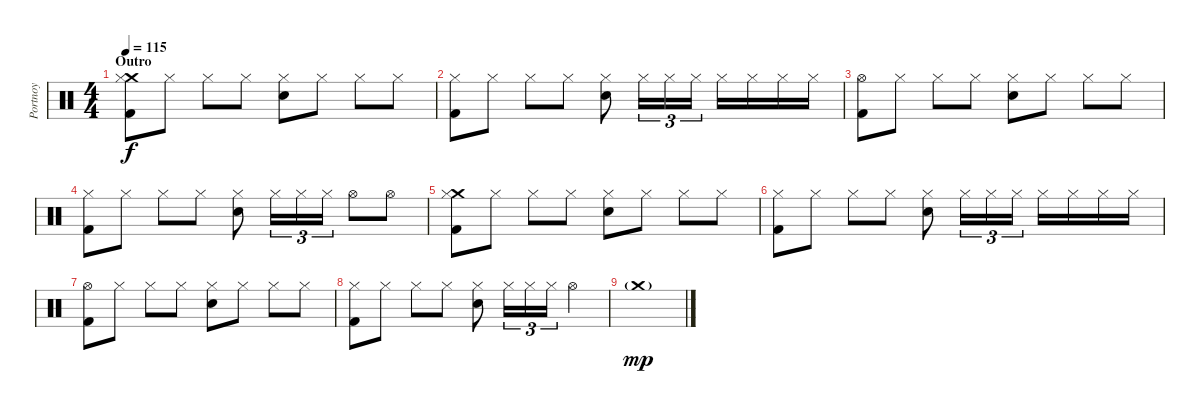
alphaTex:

\track ("Portnoy" "Portnoy") {instrument percussion}
\staff {score}
\articulation defaults
\ts (4 4)
\section ("" "Outro")
\tempo 115
\clef neutral
\ks c
("Crash medium (hit)" "Hi-Hat (closed)" "Kick (hit) 2").8{dy f} "Hi-Hat (closed)".8 "Hi-Hat (closed)".8 "Hi-Hat (closed)".8 ("Hi-Hat (closed)" "Snare (hit) 2").8 "Hi-Hat (closed)".8 "Hi-Hat (closed)".8 "Hi-Hat (closed)".8 |
("Hi-Hat (closed)" "Kick (hit) 2").8 "Hi-Hat (closed)".8 "Hi-Hat (closed)".8 "Hi-Hat (closed)".8 ("Hi-Hat (closed)" "Snare (hit) 2").8 "Hi-Hat (closed)".16{tu (3 2)} "Hi-Hat (closed)".16{tu (3 2)} "Hi-Hat (closed)".16{tu (3 2)} "Hi-Hat (closed)".16 "Hi-Hat (closed)".16 "Hi-Hat (closed)".16 "Hi-Hat (closed)".16 |
("Hi-Hat (open)" "Kick (hit) 2").8 "Hi-Hat (closed)".8 "Hi-Hat (closed)".8 "Hi-Hat (closed)".8 ("Hi-Hat (closed)" "Snare (hit) 2").8 "Hi-Hat (closed)".8 "Hi-Hat (closed)".8 "Hi-Hat (closed)".8 |
("Hi-Hat (closed)" "Kick (hit) 2").8 "Hi-Hat (closed)".8 "Hi-Hat (closed)".8 "Hi-Hat (closed)".8 ("Hi-Hat (closed)" "Snare (hit) 2").8 "Hi-Hat (closed)".16{tu (3 2)} "Hi-Hat (closed)".16{tu (3 2)} "Hi-Hat (closed)".16{tu (3 2)} "Hi-Hat (open)".8 "Hi-Hat (open)".8 |
("Crash medium (hit)" "Hi-Hat (closed)" "Kick (hit) 2").8 "Hi-Hat (closed)".8 "Hi-Hat (closed)".8 "Hi-Hat (closed)".8 ("Hi-Hat (closed)" "Snare (hit) 2").8 "Hi-Hat (closed)".8 "Hi-Hat (closed)".8 "Hi-Hat (closed)".8 |
("Hi-Hat (closed)" "Kick (hit) 2").8 "Hi-Hat (closed)".8 "Hi-Hat (closed)".8 "Hi-Hat (closed)".8 ("Hi-Hat (closed)" "Snare (hit) 2").8 "Hi-Hat (closed)".16{tu (3 2)} "Hi-Hat (closed)".16{tu (3 2)} "Hi-Hat (closed)".16{tu (3 2)} "Hi-Hat (closed)".16 "Hi-Hat (closed)".16 "Hi-Hat (closed)".16 "Hi-Hat (closed)".16 |
("Hi-Hat (open)" "Kick (hit) 2").8 "Hi-Hat (closed)".8 "Hi-Hat (closed)".8 "Hi-Hat (closed)".8 ("Hi-Hat (closed)" "Snare (hit) 2").8 "Hi-Hat (closed)".8 "Hi-Hat (closed)".8 "Hi-Hat (closed)".8 |
("Hi-Hat (closed)" "Kick (hit) 2").8 "Hi-Hat (closed)".8 "Hi-Hat (closed)".8 "Hi-Hat (closed)".8 ("Hi-Hat (closed)" "Snare (hit) 2").8 "Hi-Hat (closed)".16{tu (3 2)} "Hi-Hat (closed)".16{tu (3 2)} "Hi-Hat (closed)".16{tu (3 2)} "Hi-Hat (open)".4 |
"Crash medium (hit)"{g}.1{dy mp}
